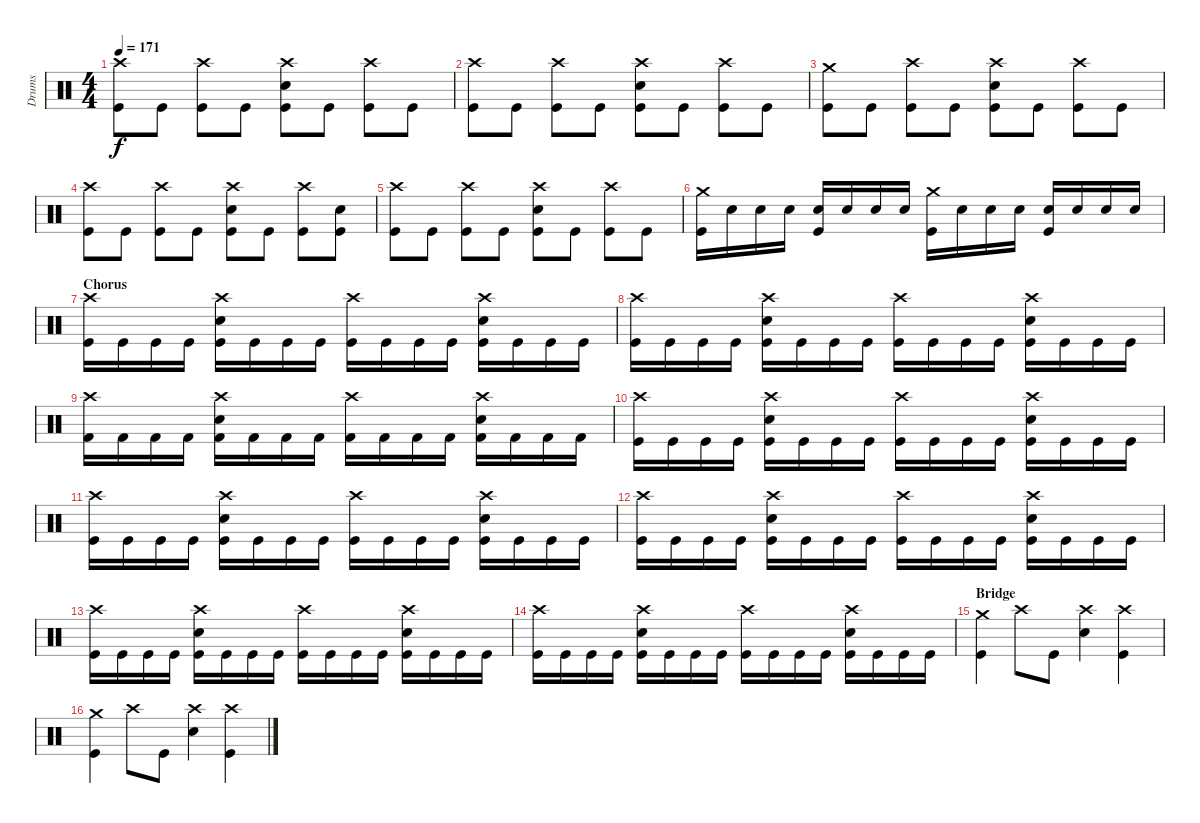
\track ("Drums" "Drums") {instrument percussion}
\staff {score}
\articulation defaults
\ts (4 4)
\tempo 171
\clef neutral
\ks c
("Crash high (hit)" "Kick (hit)").8{dy f} "Kick (hit)".8 ("Crash high (hit)" "Kick (hit)").8 "Kick (hit)".8 ("Crash high (hit)" "Snare (hit) 2" "Kick (hit)").8 "Kick (hit)".8 ("Crash high (hit)" "Kick (hit)").8 "Kick (hit)".8 |
("Crash high (hit)" "Kick (hit)").8 "Kick (hit)".8 ("Crash high (hit)" "Kick (hit)").8 "Kick (hit)".8 ("Crash high (hit)" "Snare (hit) 2" "Kick (hit)").8 "Kick (hit)".8 ("Crash high (hit)" "Kick (hit)").8 "Kick (hit)".8 |
("Crash medium (hit)" "Kick (hit)").8 "Kick (hit)".8 ("Crash high (hit)" "Kick (hit)").8 "Kick (hit)".8 ("Crash high (hit)" "Snare (hit) 2" "Kick (hit)").8 "Kick (hit)".8 ("Crash high (hit)" "Kick (hit)").8 "Kick (hit)".8 |
("Crash high (hit)" "Kick (hit)").8 "Kick (hit)".8 ("Crash high (hit)" "Kick (hit)").8 "Kick (hit)".8 ("Crash high (hit)" "Snare (hit) 2" "Kick (hit)").8 "Kick (hit)".8 ("Crash high (hit)" "Kick (hit)").8 ("Snare (hit) 2" "Kick (hit)").8 |
("Crash high (hit)" "Kick (hit)").8 "Kick (hit)".8 ("Crash high (hit)" "Kick (hit)").8 "Kick (hit)".8 ("Crash high (hit)" "Snare (hit) 2" "Kick (hit)").8 "Kick (hit)".8 ("Crash high (hit)" "Kick (hit)").8 "Kick (hit)".8 |
("Crash medium (hit)" "Kick (hit)").16 "Snare (hit) 2".16 "Snare (hit) 2".16 "Snare (hit) 2".16 ("Snare (hit) 2" "Kick (hit)").16 "Snare (hit) 2".16 "Snare (hit) 2".16 "Snare (hit) 2".16 ("Crash medium (hit)" "Kick (hit)").16 "Snare (hit) 2".16 "Snare (hit) 2".16 "Snare (hit) 2".16 ("Snare (hit) 2" "Kick (hit)").16 "Snare (hit) 2".16 "Snare (hit) 2".16 "Snare (hit) 2".16 |
\section ("" "Chorus")
("Crash high (hit)" "Kick (hit)").16 "Kick (hit)".16 "Kick (hit)".16 "Kick (hit)".16 ("Crash high (hit)" "Snare (hit) 2" "Kick (hit)").16 "Kick (hit)".16 "Kick (hit)".16 "Kick (hit)".16 ("Crash high (hit)" "Kick (hit)").16 "Kick (hit)".16 "Kick (hit)".16 "Kick (hit)".16 ("Crash high (hit)" "Snare (hit) 2" "Kick (hit)").16 "Kick (hit)".16 "Kick (hit)".16 "Kick (hit)".16 |
("Crash high (hit)" "Kick (hit)").16 "Kick (hit)".16 "Kick (hit)".16 "Kick (hit)".16 ("Crash high (hit)" "Snare (hit) 2" "Kick (hit)").16 "Kick (hit)".16 "Kick (hit)".16 "Kick (hit)".16 ("Crash high (hit)" "Kick (hit)").16 "Kick (hit)".16 "Kick (hit)".16 "Kick (hit)".16 ("Crash high (hit)" "Snare (hit) 2" "Kick (hit)").16 "Kick (hit)".16 "Kick (hit)".16 "Kick (hit)".16 |
("Crash high (hit)" "Kick (hit) 2").16 "Kick (hit) 2".16 "Kick (hit) 2".16 "Kick (hit) 2".16 ("Crash high (hit)" "Electric Snare (hit)" "Kick (hit) 2").16 "Kick (hit) 2".16 "Kick (hit) 2".16 "Kick (hit) 2".16 ("Crash high (hit)" "Kick (hit) 2").16 "Kick (hit) 2".16 "Kick (hit) 2".16 "Kick (hit) 2".16 ("Crash high (hit)" "Electric Snare (hit)" "Kick (hit) 2").16 "Kick (hit) 2".16 "Kick (hit) 2".16 "Kick (hit) 2".16 |
("Crash high (hit)" "Kick (hit)").16 "Kick (hit)".16 "Kick (hit)".16 "Kick (hit)".16 ("Crash high (hit)" "Snare (hit) 2" "Kick (hit)").16 "Kick (hit)".16 "Kick (hit)".16 "Kick (hit)".16 ("Crash high (hit)" "Kick (hit)").16 "Kick (hit)".16 "Kick (hit)".16 "Kick (hit)".16 ("Crash high (hit)" "Snare (hit) 2" "Kick (hit)").16 "Kick (hit)".16 "Kick (hit)".16 "Kick (hit)".16 |
("Crash high (hit)" "Kick (hit)").16 "Kick (hit)".16 "Kick (hit)".16 "Kick (hit)".16 ("Crash high (hit)" "Snare (hit) 2" "Kick (hit)").16 "Kick (hit)".16 "Kick (hit)".16 "Kick (hit)".16 ("Crash high (hit)" "Kick (hit)").16 "Kick (hit)".16 "Kick (hit)".16 "Kick (hit)".16 ("Crash high (hit)" "Snare (hit) 2" "Kick (hit)").16 "Kick (hit)".16 "Kick (hit)".16 "Kick (hit)".16 |
("Crash high (hit)" "Kick (hit)").16 "Kick (hit)".16 "Kick (hit)".16 "Kick (hit)".16 ("Crash high (hit)" "Snare (hit) 2" "Kick (hit)").16 "Kick (hit)".16 "Kick (hit)".16 "Kick (hit)".16 ("Crash high (hit)" "Kick (hit)").16 "Kick (hit)".16 "Kick (hit)".16 "Kick (hit)".16 ("Crash high (hit)" "Snare (hit) 2" "Kick (hit)").16 "Kick (hit)".16 "Kick (hit)".16 "Kick (hit)".16 |
("Crash high (hit)" "Kick (hit)").16 "Kick (hit)".16 "Kick (hit)".16 "Kick (hit)".16 ("Crash high (hit)" "Snare (hit) 2" "Kick (hit)").16 "Kick (hit)".16 "Kick (hit)".16 "Kick (hit)".16 ("Crash high (hit)" "Kick (hit)").16 "Kick (hit)".16 "Kick (hit)".16 "Kick (hit)".16 ("Crash high (hit)" "Snare (hit) 2" "Kick (hit)").16 "Kick (hit)".16 "Kick (hit)".16 "Kick (hit)".16 |
("Crash high (hit)" "Kick (hit)").16 "Kick (hit)".16 "Kick (hit)".16 "Kick (hit)".16 ("Crash high (hit)" "Snare (hit) 2" "Kick (hit)").16 "Kick (hit)".16 "Kick (hit)".16 "Kick (hit)".16 ("Crash high (hit)" "Kick (hit)").16 "Kick (hit)".16 "Kick (hit)".16 "Kick (hit)".16 ("Crash high (hit)" "Snare (hit) 2" "Kick (hit)").16 "Kick (hit)".16 "Kick (hit)".16 "Kick (hit)".16 |
\section ("" "Bridge")
("Crash medium (hit)" "Kick (hit)").4 "Crash high (hit)".8 "Kick (hit)".8 ("Crash high (hit)" "Snare (hit) 2").4 ("Crash high (hit)" "Kick (hit)").4 |
("Crash medium (hit)" "Kick (hit)").4 "Crash high (hit)".8 "Kick (hit)".8 ("Crash high (hit)" "Snare (hit) 2").4 ("Crash high (hit)" "Kick (hit)").4
